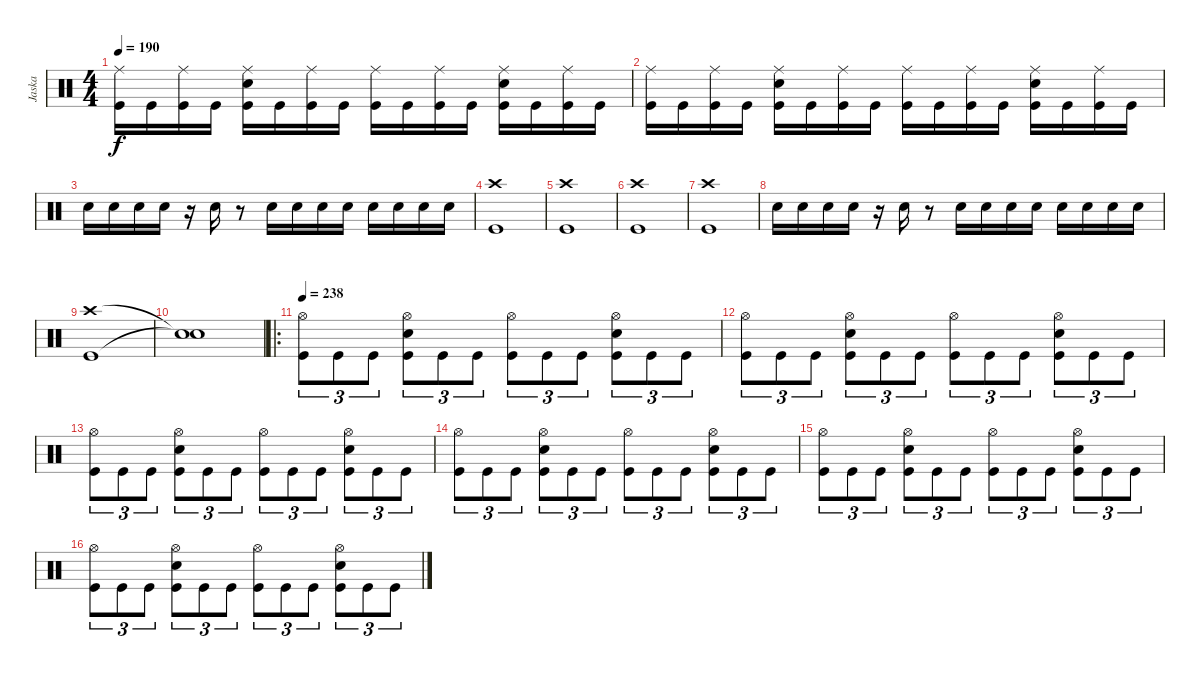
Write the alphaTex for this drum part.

\track ("Jaska" "Jaska") {instrument percussion}
\staff {score}
\articulation defaults
\ts (4 4)
\tempo 190
\clef neutral
\ks c
("Ride (middle)" "Kick (hit)").16{dy f} "Kick (hit)".16 ("Ride (middle)" "Kick (hit)").16 "Kick (hit)".16 ("Ride (middle)" "Snare (hit) 2" "Kick (hit)").16 "Kick (hit)".16 ("Ride (middle)" "Kick (hit)").16 "Kick (hit)".16 ("Ride (middle)" "Kick (hit)").16 "Kick (hit)".16 ("Ride (middle)" "Kick (hit)").16 "Kick (hit)".16 ("Ride (middle)" "Snare (hit) 2" "Kick (hit)").16 "Kick (hit)".16 ("Ride (middle)" "Kick (hit)").16 "Kick (hit)".16 |
("Ride (middle)" "Kick (hit)").16 "Kick (hit)".16 ("Ride (middle)" "Kick (hit)").16 "Kick (hit)".16 ("Ride (middle)" "Snare (hit) 2" "Kick (hit)").16 "Kick (hit)".16 ("Ride (middle)" "Kick (hit)").16 "Kick (hit)".16 ("Ride (middle)" "Kick (hit)").16 "Kick (hit)".16 ("Ride (middle)" "Kick (hit)").16 "Kick (hit)".16 ("Ride (middle)" "Snare (hit) 2" "Kick (hit)").16 "Kick (hit)".16 ("Ride (middle)" "Kick (hit)").16 "Kick (hit)".16 |
"Snare (hit) 2".16 "Snare (hit) 2".16 "Snare (hit) 2".16 "Snare (hit) 2".16 r.16 "Snare (hit) 2".16 r.8 "Snare (hit) 2".16 "Snare (hit) 2".16 "Snare (hit) 2".16 "Snare (hit) 2".16 "Snare (hit) 2".16 "Snare (hit) 2".16 "Snare (hit) 2".16 "Snare (hit) 2".16 |
("Crash high (hit)" "Kick (hit)").1 |
("Crash high (hit)" "Kick (hit)").1 |
("Crash high (hit)" "Kick (hit)").1 |
("Crash high (hit)" "Kick (hit)").1 |
"Snare (hit) 2".16 "Snare (hit) 2".16 "Snare (hit) 2".16 "Snare (hit) 2".16 r.16 "Snare (hit) 2".16 r.8 "Snare (hit) 2".16 "Snare (hit) 2".16 "Snare (hit) 2".16 "Snare (hit) 2".16 "Snare (hit) 2".16 "Snare (hit) 2".16 "Snare (hit) 2".16 "Snare (hit) 2".16 |
("Crash high (hit)" "Kick (hit)").1 |
("Snare (hit)"{t} "Snare (hit)"{t}).1 |
\ro
\tempo 238
("Hi-Hat (open)" "Kick (hit)").8{tu (3 2)} "Kick (hit)".8{tu (3 2)} "Kick (hit)".8{tu (3 2)} ("Hi-Hat (open)" "Snare (hit) 2" "Kick (hit)").8{tu (3 2)} "Kick (hit)".8{tu (3 2)} "Kick (hit)".8{tu (3 2)} ("Hi-Hat (open)" "Kick (hit)").8{tu (3 2)} "Kick (hit)".8{tu (3 2)} "Kick (hit)".8{tu (3 2)} ("Hi-Hat (open)" "Snare (hit) 2" "Kick (hit)").8{tu (3 2)} "Kick (hit)".8{tu (3 2)} "Kick (hit)".8{tu (3 2)} |
("Hi-Hat (open)" "Kick (hit)").8{tu (3 2)} "Kick (hit)".8{tu (3 2)} "Kick (hit)".8{tu (3 2)} ("Hi-Hat (open)" "Snare (hit) 2" "Kick (hit)").8{tu (3 2)} "Kick (hit)".8{tu (3 2)} "Kick (hit)".8{tu (3 2)} ("Hi-Hat (open)" "Kick (hit)").8{tu (3 2)} "Kick (hit)".8{tu (3 2)} "Kick (hit)".8{tu (3 2)} ("Hi-Hat (open)" "Snare (hit) 2" "Kick (hit)").8{tu (3 2)} "Kick (hit)".8{tu (3 2)} "Kick (hit)".8{tu (3 2)} |
("Hi-Hat (open)" "Kick (hit)").8{tu (3 2)} "Kick (hit)".8{tu (3 2)} "Kick (hit)".8{tu (3 2)} ("Hi-Hat (open)" "Snare (hit) 2" "Kick (hit)").8{tu (3 2)} "Kick (hit)".8{tu (3 2)} "Kick (hit)".8{tu (3 2)} ("Hi-Hat (open)" "Kick (hit)").8{tu (3 2)} "Kick (hit)".8{tu (3 2)} "Kick (hit)".8{tu (3 2)} ("Hi-Hat (open)" "Snare (hit) 2" "Kick (hit)").8{tu (3 2)} "Kick (hit)".8{tu (3 2)} "Kick (hit)".8{tu (3 2)} |
("Hi-Hat (open)" "Kick (hit)").8{tu (3 2)} "Kick (hit)".8{tu (3 2)} "Kick (hit)".8{tu (3 2)} ("Hi-Hat (open)" "Snare (hit) 2" "Kick (hit)").8{tu (3 2)} "Kick (hit)".8{tu (3 2)} "Kick (hit)".8{tu (3 2)} ("Hi-Hat (open)" "Kick (hit)").8{tu (3 2)} "Kick (hit)".8{tu (3 2)} "Kick (hit)".8{tu (3 2)} ("Hi-Hat (open)" "Snare (hit) 2" "Kick (hit)").8{tu (3 2)} "Kick (hit)".8{tu (3 2)} "Kick (hit)".8{tu (3 2)} |
("Hi-Hat (open)" "Kick (hit)").8{tu (3 2)} "Kick (hit)".8{tu (3 2)} "Kick (hit)".8{tu (3 2)} ("Hi-Hat (open)" "Snare (hit) 2" "Kick (hit)").8{tu (3 2)} "Kick (hit)".8{tu (3 2)} "Kick (hit)".8{tu (3 2)} ("Hi-Hat (open)" "Kick (hit)").8{tu (3 2)} "Kick (hit)".8{tu (3 2)} "Kick (hit)".8{tu (3 2)} ("Hi-Hat (open)" "Snare (hit) 2" "Kick (hit)").8{tu (3 2)} "Kick (hit)".8{tu (3 2)} "Kick (hit)".8{tu (3 2)} |
("Hi-Hat (open)" "Kick (hit)").8{tu (3 2)} "Kick (hit)".8{tu (3 2)} "Kick (hit)".8{tu (3 2)} ("Hi-Hat (open)" "Snare (hit) 2" "Kick (hit)").8{tu (3 2)} "Kick (hit)".8{tu (3 2)} "Kick (hit)".8{tu (3 2)} ("Hi-Hat (open)" "Kick (hit)").8{tu (3 2)} "Kick (hit)".8{tu (3 2)} "Kick (hit)".8{tu (3 2)} ("Hi-Hat (open)" "Snare (hit) 2" "Kick (hit)").8{tu (3 2)} "Kick (hit)".8{tu (3 2)} "Kick (hit)".8{tu (3 2)}
